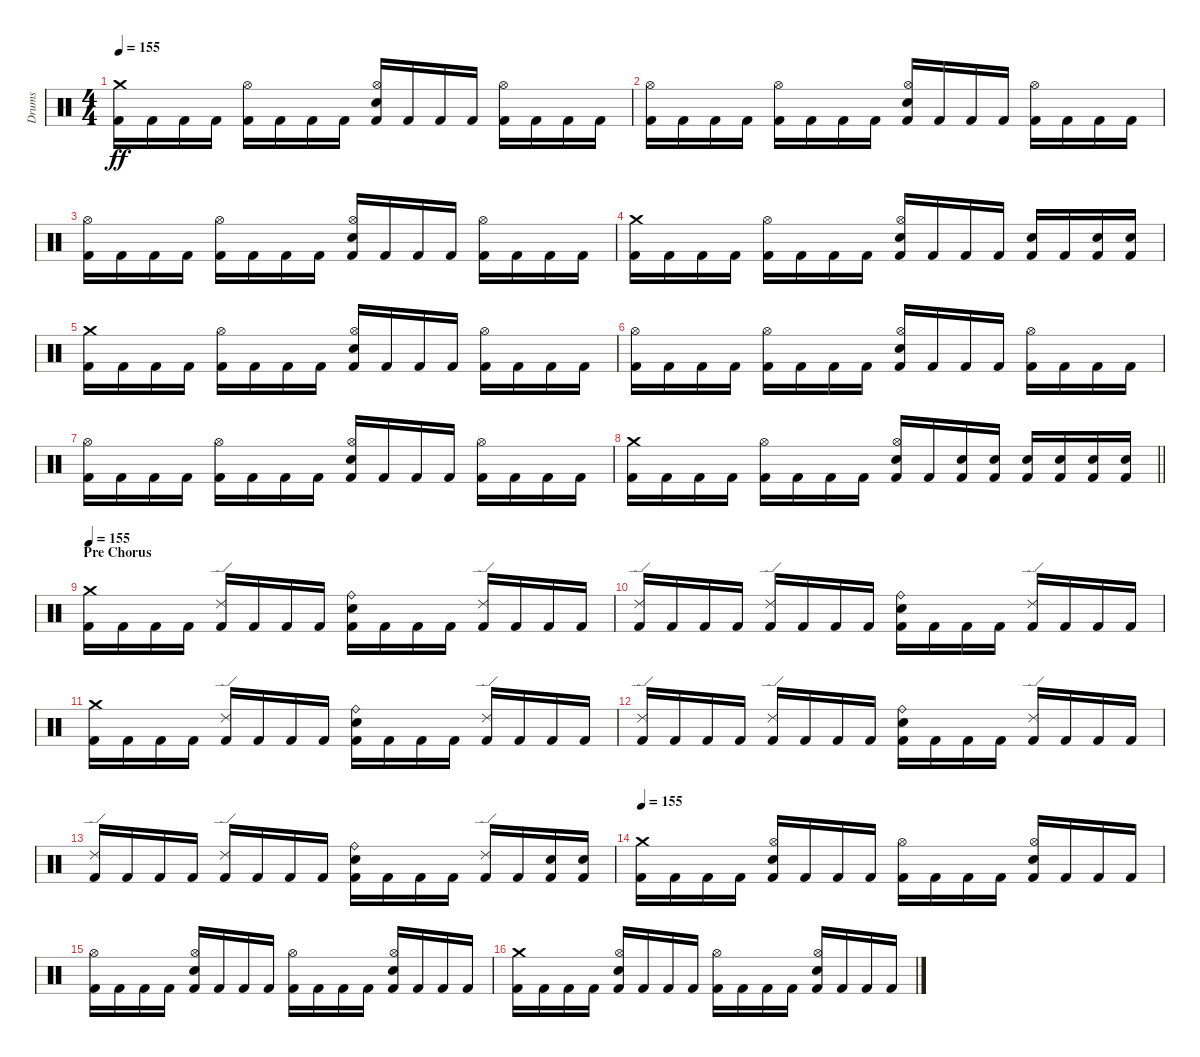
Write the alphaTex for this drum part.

\track ("Drums" "Drums") {solo instrument percussion}
\staff {score}
\articulation defaults
\ts (4 4)
\tempo 155
\clef neutral
\ks c
("Crash medium (hit)" "Kick (hit) 2").16{dy ff} "Kick (hit) 2".16 "Kick (hit) 2".16 "Kick (hit) 2".16 ("Hi-Hat (open)" "Kick (hit) 2").16 "Kick (hit) 2".16 "Kick (hit) 2".16 "Kick (hit) 2".16 ("Electric Snare (hit)" "Hi-Hat (open)" "Kick (hit) 2").16 "Kick (hit) 2".16 "Kick (hit) 2".16 "Kick (hit) 2".16 ("Hi-Hat (open)" "Kick (hit) 2").16 "Kick (hit) 2".16 "Kick (hit) 2".16 "Kick (hit) 2".16 |
("Hi-Hat (open)" "Kick (hit) 2").16 "Kick (hit) 2".16 "Kick (hit) 2".16 "Kick (hit) 2".16 ("Hi-Hat (open)" "Kick (hit) 2").16 "Kick (hit) 2".16 "Kick (hit) 2".16 "Kick (hit) 2".16 ("Electric Snare (hit)" "Hi-Hat (open)" "Kick (hit) 2").16 "Kick (hit) 2".16 "Kick (hit) 2".16 "Kick (hit) 2".16 ("Hi-Hat (open)" "Kick (hit) 2").16 "Kick (hit) 2".16 "Kick (hit) 2".16 "Kick (hit) 2".16 |
("Hi-Hat (open)" "Kick (hit) 2").16 "Kick (hit) 2".16 "Kick (hit) 2".16 "Kick (hit) 2".16 ("Hi-Hat (open)" "Kick (hit) 2").16 "Kick (hit) 2".16 "Kick (hit) 2".16 "Kick (hit) 2".16 ("Electric Snare (hit)" "Hi-Hat (open)" "Kick (hit) 2").16 "Kick (hit) 2".16 "Kick (hit) 2".16 "Kick (hit) 2".16 ("Hi-Hat (open)" "Kick (hit) 2").16 "Kick (hit) 2".16 "Kick (hit) 2".16 "Kick (hit) 2".16 |
("Crash medium (hit)" "Kick (hit) 2").16 "Kick (hit) 2".16 "Kick (hit) 2".16 "Kick (hit) 2".16 ("Hi-Hat (open)" "Kick (hit) 2").16 "Kick (hit) 2".16 "Kick (hit) 2".16 "Kick (hit) 2".16 ("Electric Snare (hit)" "Hi-Hat (open)" "Kick (hit) 2").16 "Kick (hit) 2".16 "Kick (hit) 2".16 "Kick (hit) 2".16 ("Electric Snare (hit)" "Kick (hit) 2").16 "Kick (hit) 2".16 ("Electric Snare (hit)" "Kick (hit) 2").16 ("Electric Snare (hit)" "Kick (hit) 2").16 |
("Crash medium (hit)" "Kick (hit) 2").16 "Kick (hit) 2".16 "Kick (hit) 2".16 "Kick (hit) 2".16 ("Hi-Hat (open)" "Kick (hit) 2").16 "Kick (hit) 2".16 "Kick (hit) 2".16 "Kick (hit) 2".16 ("Electric Snare (hit)" "Hi-Hat (open)" "Kick (hit) 2").16 "Kick (hit) 2".16 "Kick (hit) 2".16 "Kick (hit) 2".16 ("Hi-Hat (open)" "Kick (hit) 2").16 "Kick (hit) 2".16 "Kick (hit) 2".16 "Kick (hit) 2".16 |
("Hi-Hat (open)" "Kick (hit) 2").16 "Kick (hit) 2".16 "Kick (hit) 2".16 "Kick (hit) 2".16 ("Hi-Hat (open)" "Kick (hit) 2").16 "Kick (hit) 2".16 "Kick (hit) 2".16 "Kick (hit) 2".16 ("Electric Snare (hit)" "Hi-Hat (open)" "Kick (hit) 2").16 "Kick (hit) 2".16 "Kick (hit) 2".16 "Kick (hit) 2".16 ("Hi-Hat (open)" "Kick (hit) 2").16 "Kick (hit) 2".16 "Kick (hit) 2".16 "Kick (hit) 2".16 |
("Hi-Hat (open)" "Kick (hit) 2").16 "Kick (hit) 2".16 "Kick (hit) 2".16 "Kick (hit) 2".16 ("Hi-Hat (open)" "Kick (hit) 2").16 "Kick (hit) 2".16 "Kick (hit) 2".16 "Kick (hit) 2".16 ("Electric Snare (hit)" "Hi-Hat (open)" "Kick (hit) 2").16 "Kick (hit) 2".16 "Kick (hit) 2".16 "Kick (hit) 2".16 ("Hi-Hat (open)" "Kick (hit) 2").16 "Kick (hit) 2".16 "Kick (hit) 2".16 "Kick (hit) 2".16 |
\barLineRight lightlight
("Crash medium (hit)" "Kick (hit) 2").16 "Kick (hit) 2".16 "Kick (hit) 2".16 "Kick (hit) 2".16 ("Hi-Hat (open)" "Kick (hit) 2").16 "Kick (hit) 2".16 "Kick (hit) 2".16 "Kick (hit) 2".16 ("Electric Snare (hit)" "Hi-Hat (open)" "Kick (hit) 2").16 "Kick (hit) 2".16 ("Electric Snare (hit)" "Kick (hit) 2").16 ("Electric Snare (hit)" "Kick (hit) 2").16 ("Electric Snare (hit)" "Kick (hit) 2").16 ("Electric Snare (hit)" "Kick (hit) 2").16 ("Electric Snare (hit)" "Kick (hit) 2").16 ("Electric Snare (hit)" "Kick (hit) 2").16 |
\section ("" "Pre Chorus")
\tempo 155
("Crash medium (hit)" "Kick (hit) 2").16 "Kick (hit) 2".16 "Kick (hit) 2".16 "Kick (hit) 2".16 ("Ride (edge) 2" "Kick (hit) 2").16 "Kick (hit) 2".16 "Kick (hit) 2".16 "Kick (hit) 2".16 ("Electric Snare (hit)" "Ride (bell)" "Kick (hit) 2").16 "Kick (hit) 2".16 "Kick (hit) 2".16 "Kick (hit) 2".16 ("Ride (edge) 2" "Kick (hit) 2").16 "Kick (hit) 2".16 "Kick (hit) 2".16 "Kick (hit) 2".16 |
("Ride (edge) 2" "Kick (hit) 2").16 "Kick (hit) 2".16 "Kick (hit) 2".16 "Kick (hit) 2".16 ("Ride (edge) 2" "Kick (hit) 2").16 "Kick (hit) 2".16 "Kick (hit) 2".16 "Kick (hit) 2".16 ("Electric Snare (hit)" "Ride (bell)" "Kick (hit) 2").16 "Kick (hit) 2".16 "Kick (hit) 2".16 "Kick (hit) 2".16 ("Ride (edge) 2" "Kick (hit) 2").16 "Kick (hit) 2".16 "Kick (hit) 2".16 "Kick (hit) 2".16 |
("Crash medium (hit)" "Kick (hit) 2").16 "Kick (hit) 2".16 "Kick (hit) 2".16 "Kick (hit) 2".16 ("Ride (edge) 2" "Kick (hit) 2").16 "Kick (hit) 2".16 "Kick (hit) 2".16 "Kick (hit) 2".16 ("Electric Snare (hit)" "Ride (bell)" "Kick (hit) 2").16 "Kick (hit) 2".16 "Kick (hit) 2".16 "Kick (hit) 2".16 ("Ride (edge) 2" "Kick (hit) 2").16 "Kick (hit) 2".16 "Kick (hit) 2".16 "Kick (hit) 2".16 |
("Ride (edge) 2" "Kick (hit) 2").16 "Kick (hit) 2".16 "Kick (hit) 2".16 "Kick (hit) 2".16 ("Ride (edge) 2" "Kick (hit) 2").16 "Kick (hit) 2".16 "Kick (hit) 2".16 "Kick (hit) 2".16 ("Electric Snare (hit)" "Ride (bell)" "Kick (hit) 2").16 "Kick (hit) 2".16 "Kick (hit) 2".16 "Kick (hit) 2".16 ("Ride (edge) 2" "Kick (hit) 2").16 "Kick (hit) 2".16 "Kick (hit) 2".16 "Kick (hit) 2".16 |
("Ride (edge) 2" "Kick (hit) 2").16 "Kick (hit) 2".16 "Kick (hit) 2".16 "Kick (hit) 2".16 ("Ride (edge) 2" "Kick (hit) 2").16 "Kick (hit) 2".16 "Kick (hit) 2".16 "Kick (hit) 2".16 ("Electric Snare (hit)" "Ride (bell)" "Kick (hit) 2").16 "Kick (hit) 2".16 "Kick (hit) 2".16 "Kick (hit) 2".16 ("Ride (edge) 2" "Kick (hit) 2").16 "Kick (hit) 2".16 ("Electric Snare (hit)" "Kick (hit) 2").16 ("Electric Snare (hit)" "Kick (hit) 2").16 |
\tempo 155
("Crash medium (hit)" "Kick (hit) 2").16 "Kick (hit) 2".16 "Kick (hit) 2".16 "Kick (hit) 2".16 ("Electric Snare (hit)" "Hi-Hat (open)" "Kick (hit) 2").16 "Kick (hit) 2".16 "Kick (hit) 2".16 "Kick (hit) 2".16 ("Hi-Hat (open)" "Kick (hit) 2").16 "Kick (hit) 2".16 "Kick (hit) 2".16 "Kick (hit) 2".16 ("Electric Snare (hit)" "Hi-Hat (open)" "Kick (hit) 2").16 "Kick (hit) 2".16 "Kick (hit) 2".16 "Kick (hit) 2".16 |
("Hi-Hat (open)" "Kick (hit) 2").16 "Kick (hit) 2".16 "Kick (hit) 2".16 "Kick (hit) 2".16 ("Electric Snare (hit)" "Hi-Hat (open)" "Kick (hit) 2").16 "Kick (hit) 2".16 "Kick (hit) 2".16 "Kick (hit) 2".16 ("Hi-Hat (open)" "Kick (hit) 2").16 "Kick (hit) 2".16 "Kick (hit) 2".16 "Kick (hit) 2".16 ("Electric Snare (hit)" "Hi-Hat (open)" "Kick (hit) 2").16 "Kick (hit) 2".16 "Kick (hit) 2".16 "Kick (hit) 2".16 |
("Crash medium (hit)" "Kick (hit) 2").16 "Kick (hit) 2".16 "Kick (hit) 2".16 "Kick (hit) 2".16 ("Electric Snare (hit)" "Hi-Hat (open)" "Kick (hit) 2").16 "Kick (hit) 2".16 "Kick (hit) 2".16 "Kick (hit) 2".16 ("Hi-Hat (open)" "Kick (hit) 2").16 "Kick (hit) 2".16 "Kick (hit) 2".16 "Kick (hit) 2".16 ("Electric Snare (hit)" "Hi-Hat (open)" "Kick (hit) 2").16 "Kick (hit) 2".16 "Kick (hit) 2".16 "Kick (hit) 2".16
